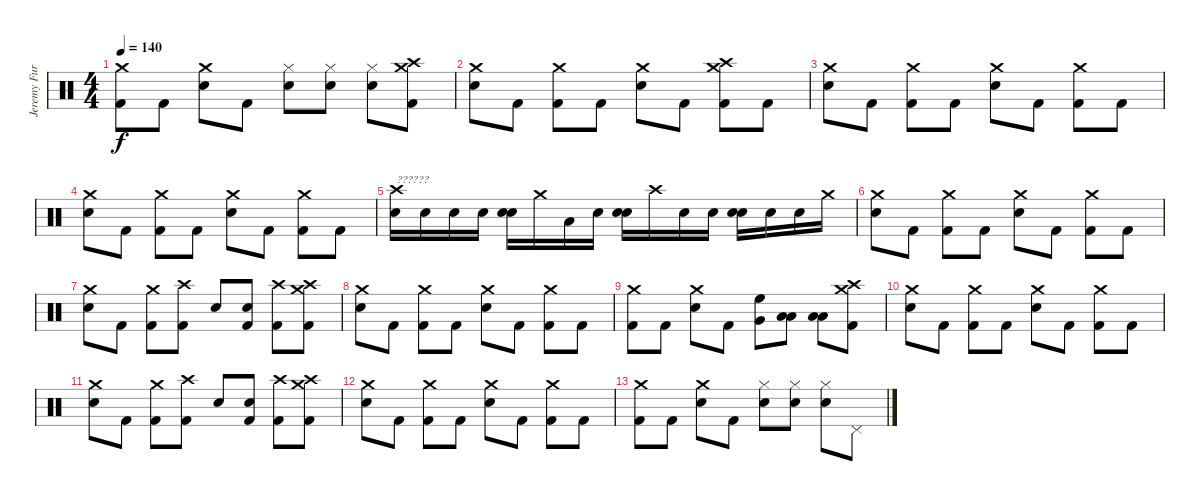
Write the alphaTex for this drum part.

\track ("Jeremy Furstenfeld" "Jeremy Fur") {instrument percussion}
\staff {score}
\articulation defaults
\ts (4 4)
\tempo 140
\clef neutral
\ks c
("Crash medium (hit)" "Kick (hit) 2").8{dy f} "Kick (hit) 2".8 ("Crash medium (hit)" "Snare (hit) 2").8 "Kick (hit) 2".8 ("Hi-Hat (closed)" "Snare (hit) 2").8 ("Hi-Hat (closed)" "Snare (hit) 2").8 ("Hi-Hat (closed)" "Snare (hit) 2").8 ("Crash medium (hit)" "Crash high (hit)" "Kick (hit) 2").8 |
("Crash medium (hit)" "Snare (hit) 2").8 "Kick (hit) 2".8 ("Crash medium (hit)" "Kick (hit) 2").8 "Kick (hit) 2".8 ("Crash medium (hit)" "Snare (hit) 2").8 "Kick (hit) 2".8 ("Crash medium (hit)" "Crash high (hit)" "Kick (hit) 2").8 "Kick (hit) 2".8 |
("Crash medium (hit)" "Snare (hit) 2").8 "Kick (hit) 2".8 ("Crash medium (hit)" "Kick (hit) 2").8 "Kick (hit) 2".8 ("Crash medium (hit)" "Snare (hit) 2").8 "Kick (hit) 2".8 ("Crash medium (hit)" "Kick (hit) 2").8 "Kick (hit) 2".8 |
("Crash medium (hit)" "Snare (hit) 2").8 "Kick (hit) 2".8 ("Crash medium (hit)" "Kick (hit) 2").8 "Kick (hit) 2".8 ("Crash medium (hit)" "Snare (hit) 2").8 "Kick (hit) 2".8 ("Crash medium (hit)" "Kick (hit) 2").8 "Kick (hit) 2".8 |
("Crash high (hit)" "Snare (hit) 2").16{txt "??????"} "Snare (hit) 2".16 "Snare (hit) 2".16 "Snare (hit) 2".16 ("Snare (hit) 2" "Snare (hit) 2").16 "Crash medium (hit)".16 "Low Tom (hit)".16 "Snare (hit) 2".16 ("Snare (hit) 2" "Snare (hit) 2").16 "Crash high (hit)".16 "Snare (hit) 2".16 "Snare (hit) 2".16 ("Snare (hit) 2" "Snare (hit) 2").16 "Snare (hit) 2".16 "Snare (hit) 2".16 "Crash medium (hit)".16 |
("Crash medium (hit)" "Snare (hit) 2").8 "Kick (hit) 2".8 ("Crash medium (hit)" "Kick (hit) 2").8 "Kick (hit) 2".8 ("Crash medium (hit)" "Snare (hit) 2").8 "Kick (hit) 2".8 ("Crash medium (hit)" "Kick (hit) 2").8 "Kick (hit) 2".8 |
("Crash medium (hit)" "Snare (hit) 2").8 "Kick (hit) 2".8 ("Crash medium (hit)" "Kick (hit) 2").8 ("Crash high (hit)" "Kick (hit) 2").8 "Snare (hit) 2".8 ("Snare (hit) 2" "Kick (hit) 2").8 ("Crash high (hit)" "Kick (hit) 2").8 ("Crash medium (hit)" "Crash high (hit)" "Kick (hit) 2").8 |
("Crash medium (hit)" "Snare (hit) 2").8 "Kick (hit) 2".8 ("Crash medium (hit)" "Kick (hit) 2").8 "Kick (hit) 2".8 ("Crash medium (hit)" "Snare (hit) 2").8 "Kick (hit) 2".8 ("Crash medium (hit)" "Kick (hit) 2").8 "Kick (hit) 2".8 |
("Crash medium (hit)" "Kick (hit) 2").8 "Kick (hit) 2".8 ("Crash medium (hit)" "Snare (hit) 2").8 "Kick (hit) 2".8 ("High Floor Tom (hit)" "Very Low Tom (hit)").8 ("Low Tom (hit)" "Low Floor Tom (hit)").8 ("Low Tom (hit)" "Low Floor Tom (hit)").8 ("Crash medium (hit)" "Crash high (hit)" "Kick (hit) 2").8 |
("Crash medium (hit)" "Snare (hit) 2").8 "Kick (hit) 2".8 ("Crash medium (hit)" "Kick (hit) 2").8 "Kick (hit) 2".8 ("Crash medium (hit)" "Snare (hit) 2").8 "Kick (hit) 2".8 ("Crash medium (hit)" "Kick (hit) 2").8 "Kick (hit) 2".8 |
("Crash medium (hit)" "Snare (hit) 2").8 "Kick (hit) 2".8 ("Crash medium (hit)" "Kick (hit) 2").8 ("Crash high (hit)" "Kick (hit) 2").8 "Snare (hit) 2".8 ("Snare (hit) 2" "Kick (hit) 2").8 ("Crash high (hit)" "Kick (hit) 2").8 ("Crash medium (hit)" "Crash high (hit)" "Kick (hit) 2").8 |
("Crash medium (hit)" "Snare (hit) 2").8 "Kick (hit) 2".8 ("Crash medium (hit)" "Kick (hit) 2").8 "Kick (hit) 2".8 ("Crash medium (hit)" "Snare (hit) 2").8 "Kick (hit) 2".8 ("Crash medium (hit)" "Kick (hit) 2").8 "Kick (hit) 2".8 |
("Crash medium (hit)" "Kick (hit) 2").8 "Kick (hit) 2".8 ("Crash medium (hit)" "Snare (hit) 2").8 "Kick (hit) 2".8 ("Hi-Hat (closed)" "Snare (hit) 2").8 ("Hi-Hat (closed)" "Snare (hit) 2").8 ("Hi-Hat (closed)" "Snare (hit) 2").8 "Pedal Hi-Hat (hit)".8
